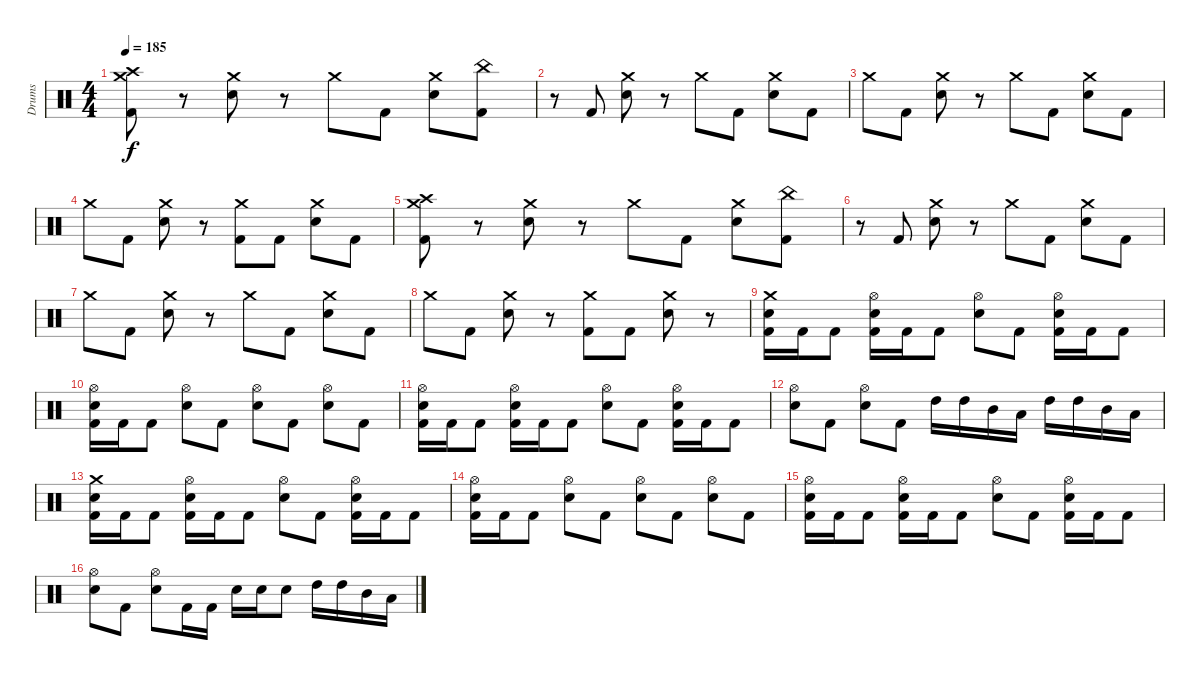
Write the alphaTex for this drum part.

\track ("Drums" "Drums") {instrument percussion}
\staff {score}
\articulation defaults
\ts (4 4)
\tempo 185
\clef neutral
\ks c
("Crash medium (hit)" "Crash high (hit)" "Kick (hit) 2").8{dy f} r.8 ("Crash medium (hit)" "Snare (hit) 2").8 r.8 "Crash medium (hit)".8 "Kick (hit) 2".8 ("Crash medium (hit)" "Snare (hit) 2").8 ("China (hit)" "Kick (hit) 2").8 |
r.8 "Kick (hit) 2".8 ("Crash medium (hit)" "Snare (hit) 2").8 r.8 "Crash medium (hit)".8 "Kick (hit) 2".8 ("Crash medium (hit)" "Snare (hit) 2").8 "Kick (hit) 2".8 |
"Crash medium (hit)".8 "Kick (hit) 2".8 ("Crash medium (hit)" "Snare (hit) 2").8 r.8 "Crash medium (hit)".8 "Kick (hit) 2".8 ("Crash medium (hit)" "Snare (hit) 2").8 "Kick (hit) 2".8 |
"Crash medium (hit)".8 "Kick (hit) 2".8 ("Crash medium (hit)" "Snare (hit) 2").8 r.8 ("Crash medium (hit)" "Kick (hit) 2").8 "Kick (hit) 2".8 ("Crash medium (hit)" "Snare (hit) 2").8 "Kick (hit) 2".8 |
("Crash medium (hit)" "Crash high (hit)" "Kick (hit) 2").8 r.8 ("Crash medium (hit)" "Snare (hit) 2").8 r.8 "Crash medium (hit)".8 "Kick (hit) 2".8 ("Crash medium (hit)" "Snare (hit) 2").8 ("China (hit)" "Kick (hit) 2").8 |
r.8 "Kick (hit) 2".8 ("Crash medium (hit)" "Snare (hit) 2").8 r.8 "Crash medium (hit)".8 "Kick (hit) 2".8 ("Crash medium (hit)" "Snare (hit) 2").8 "Kick (hit) 2".8 |
"Crash medium (hit)".8 "Kick (hit) 2".8 ("Crash medium (hit)" "Snare (hit) 2").8 r.8 "Crash medium (hit)".8 "Kick (hit) 2".8 ("Crash medium (hit)" "Snare (hit) 2").8 "Kick (hit) 2".8 |
"Crash medium (hit)".8 "Kick (hit) 2".8 ("Crash medium (hit)" "Snare (hit) 2").8 r.8 ("Crash medium (hit)" "Kick (hit) 2").8 "Kick (hit) 2".8 ("Crash medium (hit)" "Snare (hit) 2").8 r.8 |
("Snare (hit) 2" "Crash medium (hit)" "Kick (hit) 2").16 "Kick (hit) 2".16 "Kick (hit) 2".8 ("Snare (hit) 2" "Hi-Hat (open)" "Kick (hit) 2").16 "Kick (hit) 2".16 "Kick (hit) 2".8 ("Snare (hit) 2" "Hi-Hat (open)").8 "Kick (hit) 2".8 ("Snare (hit) 2" "Hi-Hat (open)" "Kick (hit) 2").16 "Kick (hit) 2".16 "Kick (hit) 2".8 |
("Snare (hit) 2" "Hi-Hat (open)" "Kick (hit) 2").16 "Kick (hit) 2".16 "Kick (hit) 2".8 ("Snare (hit) 2" "Hi-Hat (open)").8 "Kick (hit) 2".8 ("Snare (hit) 2" "Hi-Hat (open)").8 "Kick (hit) 2".8 ("Snare (hit) 2" "Hi-Hat (open)").8 "Kick (hit) 2".8 |
("Snare (hit) 2" "Hi-Hat (open)" "Kick (hit) 2").16 "Kick (hit) 2".16 "Kick (hit) 2".8 ("Snare (hit) 2" "Hi-Hat (open)" "Kick (hit) 2").16 "Kick (hit) 2".16 "Kick (hit) 2".8 ("Snare (hit) 2" "Hi-Hat (open)").8 "Kick (hit) 2".8 ("Snare (hit) 2" "Hi-Hat (open)" "Kick (hit) 2").16 "Kick (hit) 2".16 "Kick (hit) 2".8 |
("Snare (hit) 2" "Hi-Hat (open)").8 "Kick (hit) 2".8 ("Snare (hit) 2" "Hi-Hat (open)").8 "Kick (hit) 2".8 "High Tom (hit)".16 "High Tom (hit)".16 "Mid Tom (hit)".16 "Low Tom (hit)".16 "High Tom (hit)".16 "High Tom (hit)".16 "Mid Tom (hit)".16 "Low Tom (hit)".16 |
("Snare (hit) 2" "Crash medium (hit)" "Kick (hit) 2").16 "Kick (hit) 2".16 "Kick (hit) 2".8 ("Snare (hit) 2" "Hi-Hat (open)" "Kick (hit) 2").16 "Kick (hit) 2".16 "Kick (hit) 2".8 ("Snare (hit) 2" "Hi-Hat (open)").8 "Kick (hit) 2".8 ("Snare (hit) 2" "Hi-Hat (open)" "Kick (hit) 2").16 "Kick (hit) 2".16 "Kick (hit) 2".8 |
("Snare (hit) 2" "Hi-Hat (open)" "Kick (hit) 2").16 "Kick (hit) 2".16 "Kick (hit) 2".8 ("Snare (hit) 2" "Hi-Hat (open)").8 "Kick (hit) 2".8 ("Snare (hit) 2" "Hi-Hat (open)").8 "Kick (hit) 2".8 ("Snare (hit) 2" "Hi-Hat (open)").8 "Kick (hit) 2".8 |
("Snare (hit) 2" "Hi-Hat (open)" "Kick (hit) 2").16 "Kick (hit) 2".16 "Kick (hit) 2".8 ("Snare (hit) 2" "Hi-Hat (open)" "Kick (hit) 2").16 "Kick (hit) 2".16 "Kick (hit) 2".8 ("Snare (hit) 2" "Hi-Hat (open)").8 "Kick (hit) 2".8 ("Snare (hit) 2" "Hi-Hat (open)" "Kick (hit) 2").16 "Kick (hit) 2".16 "Kick (hit) 2".8 |
("Snare (hit) 2" "Hi-Hat (open)").8 "Kick (hit) 2".8 ("Snare (hit) 2" "Hi-Hat (open)").8 "Kick (hit) 2".16 "Kick (hit) 2".16 "Snare (hit) 2".16 "Snare (hit) 2".16 "Snare (hit) 2".8 "High Tom (hit)".16 "High Tom (hit)".16 "Mid Tom (hit)".16 "Low Tom (hit)".16
